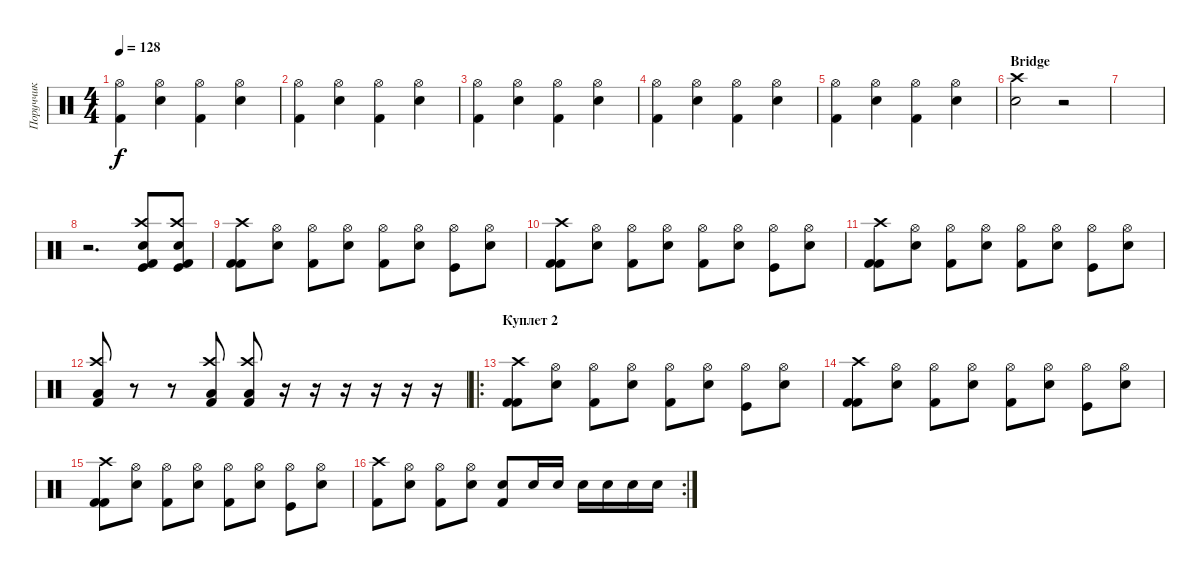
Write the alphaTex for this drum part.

\track ("Поруччик" "Поруччик") {instrument percussion}
\staff {score}
\articulation defaults
\ts (4 4)
\tempo 128
\clef neutral
\ks c
("Hi-Hat (open)" "Kick (hit) 2").4{dy f} ("Hi-Hat (open)" "Electric Snare (hit)").4 ("Hi-Hat (open)" "Kick (hit) 2").4 ("Hi-Hat (open)" "Electric Snare (hit)").4 |
("Hi-Hat (open)" "Kick (hit) 2").4 ("Hi-Hat (open)" "Electric Snare (hit)").4 ("Hi-Hat (open)" "Kick (hit) 2").4 ("Hi-Hat (open)" "Electric Snare (hit)").4 |
("Hi-Hat (open)" "Kick (hit) 2").4 ("Hi-Hat (open)" "Electric Snare (hit)").4 ("Hi-Hat (open)" "Kick (hit) 2").4 ("Hi-Hat (open)" "Electric Snare (hit)").4 |
("Hi-Hat (open)" "Kick (hit) 2").4 ("Hi-Hat (open)" "Electric Snare (hit)").4 ("Hi-Hat (open)" "Kick (hit) 2").4 ("Hi-Hat (open)" "Electric Snare (hit)").4 |
("Hi-Hat (open)" "Kick (hit) 2").4 ("Hi-Hat (open)" "Electric Snare (hit)").4 ("Hi-Hat (open)" "Kick (hit) 2").4 ("Hi-Hat (open)" "Electric Snare (hit)").4 |
\section ("" "Bridge")
("Crash high (hit)" "Electric Snare (hit)").2 r.2 |
|
r.2{d} ("Crash high (hit)" "Snare (hit) 2" "Kick (hit) 2" "Kick (hit)").8 ("Crash high (hit)" "Snare (hit) 2" "Kick (hit) 2" "Kick (hit)").8 |
("Crash high (hit)" "Kick (hit) 2" "Kick (hit) 2").8 ("Hi-Hat (open)" "Snare (hit) 2").8 ("Hi-Hat (open)" "Kick (hit) 2").8 ("Hi-Hat (open)" "Snare (hit) 2").8 ("Hi-Hat (open)" "Kick (hit) 2").8 ("Hi-Hat (open)" "Snare (hit) 2").8 ("Hi-Hat (open)" "Kick (hit)").8 ("Snare (hit) 2" "Hi-Hat (open)").8 |
("Crash high (hit)" "Kick (hit) 2" "Kick (hit) 2").8 ("Hi-Hat (open)" "Snare (hit) 2").8 ("Hi-Hat (open)" "Kick (hit) 2").8 ("Hi-Hat (open)" "Snare (hit) 2").8 ("Hi-Hat (open)" "Kick (hit) 2").8 ("Hi-Hat (open)" "Snare (hit) 2").8 ("Hi-Hat (open)" "Kick (hit)").8 ("Snare (hit) 2" "Hi-Hat (open)").8 |
("Crash high (hit)" "Kick (hit) 2" "Kick (hit) 2").8 ("Hi-Hat (open)" "Snare (hit) 2").8 ("Hi-Hat (open)" "Kick (hit) 2").8 ("Hi-Hat (open)" "Snare (hit) 2").8 ("Hi-Hat (open)" "Kick (hit) 2").8 ("Hi-Hat (open)" "Snare (hit) 2").8 ("Hi-Hat (open)" "Kick (hit)").8 ("Snare (hit) 2" "Hi-Hat (open)").8 |
("Low Tom (hit)" "Kick (hit) 2" "Crash high (hit)").8 r.8 r.8 ("Crash high (hit)" "Low Tom (hit)" "Kick (hit) 2").8 ("Crash high (hit)" "Low Tom (hit)" "Kick (hit) 2").8 r.16 r.16 r.16 r.16 r.16 r.16 |
\ro
\section ("" "Куплет 2")
("Crash high (hit)" "Kick (hit) 2" "Kick (hit) 2").8 ("Hi-Hat (open)" "Snare (hit) 2").8 ("Hi-Hat (open)" "Kick (hit) 2").8 ("Hi-Hat (open)" "Snare (hit) 2").8 ("Hi-Hat (open)" "Kick (hit) 2").8 ("Hi-Hat (open)" "Snare (hit) 2").8 ("Hi-Hat (open)" "Kick (hit)").8 ("Snare (hit) 2" "Hi-Hat (open)").8 |
("Crash high (hit)" "Kick (hit) 2" "Kick (hit) 2").8 ("Hi-Hat (open)" "Snare (hit) 2").8 ("Hi-Hat (open)" "Kick (hit) 2").8 ("Hi-Hat (open)" "Snare (hit) 2").8 ("Hi-Hat (open)" "Kick (hit) 2").8 ("Hi-Hat (open)" "Snare (hit) 2").8 ("Hi-Hat (open)" "Kick (hit)").8 ("Snare (hit) 2" "Hi-Hat (open)").8 |
("Crash high (hit)" "Kick (hit) 2" "Kick (hit) 2").8 ("Hi-Hat (open)" "Snare (hit) 2").8 ("Hi-Hat (open)" "Kick (hit) 2").8 ("Hi-Hat (open)" "Snare (hit) 2").8 ("Hi-Hat (open)" "Kick (hit) 2").8 ("Hi-Hat (open)" "Snare (hit) 2").8 ("Hi-Hat (open)" "Kick (hit)").8 ("Snare (hit) 2" "Hi-Hat (open)").8 |
\rc 2
("Kick (hit) 2" "Crash high (hit)").8 ("Snare (hit) 2" "Hi-Hat (open)").8 ("Kick (hit) 2" "Hi-Hat (open)").8 ("Snare (hit) 2" "Hi-Hat (open)").8 ("Snare (hit) 2" "Kick (hit) 2").8 "Snare (hit) 2".16 "Snare (hit) 2".16 "Snare (hit) 2".16 "Snare (hit) 2".16 "Snare (hit) 2".16 "Snare (hit) 2".16
